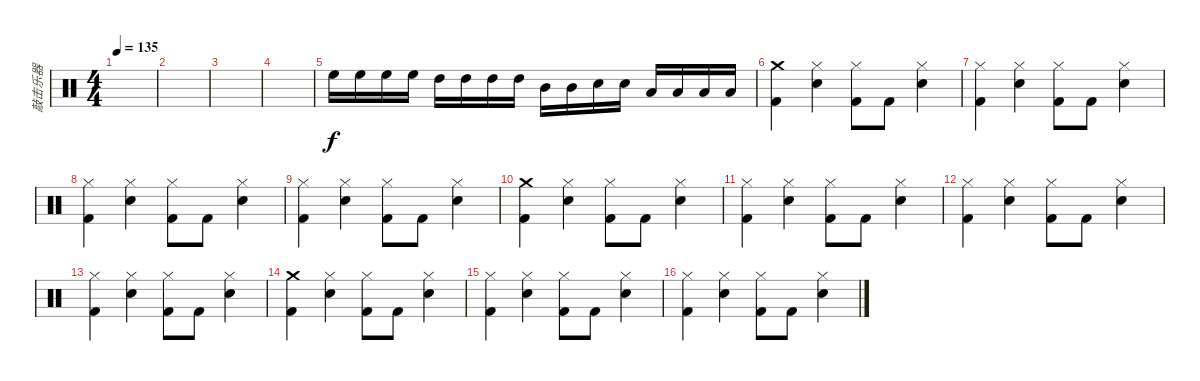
\track ("敲击乐器" "敲击乐器") {instrument percussion}
\staff {score}
\articulation defaults
\ts (4 4)
\tempo 135
\clef neutral
\ks c
|
|
|
|
"High Floor Tom (hit)".16 "High Floor Tom (hit)".16 "High Floor Tom (hit)".16 "High Floor Tom (hit)".16 "High Tom (hit)".16 "High Tom (hit)".16 "High Tom (hit)".16 "High Tom (hit)".16 "Mid Tom (hit)".16 "Mid Tom (hit)".16 "Snare (hit) 2".16 "Snare (hit) 2".16 "Low Floor Tom (hit)".16 "Low Floor Tom (hit)".16 "Low Tom (hit)".16 "Low Tom (hit)".16 |
("Crash medium (hit)" "Kick (hit) 2").4 ("Hi-Hat (closed)" "Snare (hit) 2").4 ("Hi-Hat (closed)" "Kick (hit) 2").8 "Kick (hit) 2".8 ("Hi-Hat (closed)" "Snare (hit) 2").4 |
("Hi-Hat (closed)" "Kick (hit) 2").4 ("Hi-Hat (closed)" "Snare (hit) 2").4 ("Hi-Hat (closed)" "Kick (hit) 2").8 "Kick (hit) 2".8 ("Hi-Hat (closed)" "Snare (hit) 2").4 |
("Hi-Hat (closed)" "Kick (hit) 2").4 ("Hi-Hat (closed)" "Snare (hit) 2").4 ("Hi-Hat (closed)" "Kick (hit) 2").8 "Kick (hit) 2".8 ("Hi-Hat (closed)" "Snare (hit) 2").4 |
("Hi-Hat (closed)" "Kick (hit) 2").4 ("Hi-Hat (closed)" "Snare (hit) 2").4 ("Hi-Hat (closed)" "Kick (hit) 2").8 "Kick (hit) 2".8 ("Hi-Hat (closed)" "Snare (hit) 2").4 |
("Crash medium (hit)" "Kick (hit) 2").4 ("Hi-Hat (closed)" "Snare (hit) 2").4 ("Hi-Hat (closed)" "Kick (hit) 2").8 "Kick (hit) 2".8 ("Hi-Hat (closed)" "Snare (hit) 2").4 |
("Hi-Hat (closed)" "Kick (hit) 2").4 ("Hi-Hat (closed)" "Snare (hit) 2").4 ("Hi-Hat (closed)" "Kick (hit) 2").8 "Kick (hit) 2".8 ("Hi-Hat (closed)" "Snare (hit) 2").4 |
("Hi-Hat (closed)" "Kick (hit) 2").4 ("Hi-Hat (closed)" "Snare (hit) 2").4 ("Hi-Hat (closed)" "Kick (hit) 2").8 "Kick (hit) 2".8 ("Hi-Hat (closed)" "Snare (hit) 2").4 |
("Hi-Hat (closed)" "Kick (hit) 2").4 ("Hi-Hat (closed)" "Snare (hit) 2").4 ("Hi-Hat (closed)" "Kick (hit) 2").8 "Kick (hit) 2".8 ("Hi-Hat (closed)" "Snare (hit) 2").4 |
("Crash medium (hit)" "Kick (hit) 2").4 ("Hi-Hat (closed)" "Snare (hit) 2").4 ("Hi-Hat (closed)" "Kick (hit) 2").8 "Kick (hit) 2".8 ("Hi-Hat (closed)" "Snare (hit) 2").4 |
("Hi-Hat (closed)" "Kick (hit) 2").4 ("Hi-Hat (closed)" "Snare (hit) 2").4 ("Hi-Hat (closed)" "Kick (hit) 2").8 "Kick (hit) 2".8 ("Hi-Hat (closed)" "Snare (hit) 2").4 |
("Hi-Hat (closed)" "Kick (hit) 2").4 ("Hi-Hat (closed)" "Snare (hit) 2").4 ("Hi-Hat (closed)" "Kick (hit) 2").8 "Kick (hit) 2".8 ("Hi-Hat (closed)" "Snare (hit) 2").4
